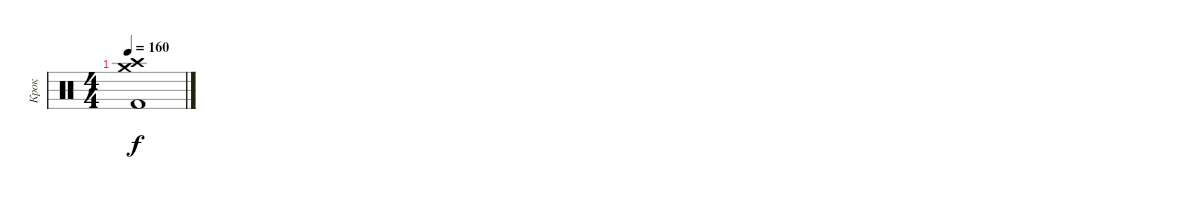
\track ("Крок" "Крок") {instrument percussion}
\staff {score}
\articulation defaults
\ts (4 4)
\tempo 160
\clef neutral
\ks c
("Crash high (hit)" "Crash medium (hit)" "Kick (hit) 2").1{dy f}
